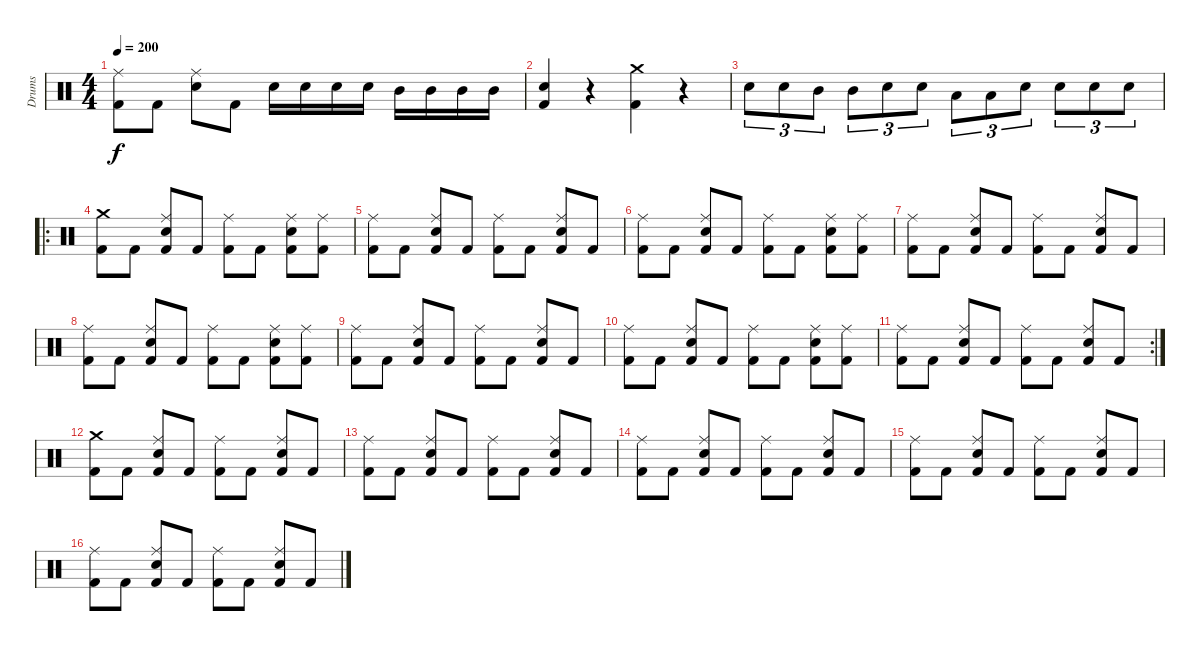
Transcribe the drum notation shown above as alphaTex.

\track ("Drums" "Drums") {instrument percussion}
\staff {score}
\articulation defaults
\ts (4 4)
\tempo 200
\clef neutral
\ks c
("Kick (hit) 2" "Ride (middle)").8{dy f} "Kick (hit) 2".8 ("Ride (middle)" "Electric Snare (hit)").8 "Kick (hit) 2".8 "Electric Snare (hit)".16 "Electric Snare (hit)".16 "Electric Snare (hit)".16 "Electric Snare (hit)".16 "Mid Tom (hit)".16 "Mid Tom (hit)".16 "Mid Tom (hit)".16 "Mid Tom (hit)".16 |
("Kick (hit) 2" "Electric Snare (hit)").4 r.4 ("Kick (hit) 2" "Crash medium (hit)").4 r.4 |
"Electric Snare (hit)".8{tu (3 2)} "Electric Snare (hit)".8{tu (3 2)} "Mid Tom (hit)".8{tu (3 2)} "Mid Tom (hit)".8{tu (3 2)} "Electric Snare (hit)".8{tu (3 2)} "Electric Snare (hit)".8{tu (3 2)} "Low Tom (hit)".8{tu (3 2)} "Low Tom (hit)".8{tu (3 2)} "Electric Snare (hit)".8{tu (3 2)} "Electric Snare (hit)".8{tu (3 2)} "Electric Snare (hit)".8{tu (3 2)} "Electric Snare (hit)".8{tu (3 2)} |
\ro
("Kick (hit) 2" "Crash medium (hit)").8 "Kick (hit) 2".8 ("Kick (hit) 2" "Ride (middle)" "Electric Snare (hit)").8 "Kick (hit) 2".8 ("Kick (hit) 2" "Ride (middle)").8 "Kick (hit) 2".8 ("Kick (hit) 2" "Ride (middle)" "Electric Snare (hit)").8 ("Kick (hit) 2" "Ride (middle)").8 |
("Kick (hit) 2" "Ride (middle)").8 "Kick (hit) 2".8 ("Kick (hit) 2" "Ride (middle)" "Electric Snare (hit)").8 "Kick (hit) 2".8 ("Kick (hit) 2" "Ride (middle)").8 "Kick (hit) 2".8 ("Kick (hit) 2" "Ride (middle)" "Electric Snare (hit)").8 "Kick (hit) 2".8 |
("Kick (hit) 2" "Ride (middle)").8 "Kick (hit) 2".8 ("Kick (hit) 2" "Ride (middle)" "Electric Snare (hit)").8 "Kick (hit) 2".8 ("Kick (hit) 2" "Ride (middle)").8 "Kick (hit) 2".8 ("Kick (hit) 2" "Ride (middle)" "Electric Snare (hit)").8 ("Kick (hit) 2" "Ride (middle)").8 |
("Kick (hit) 2" "Ride (middle)").8 "Kick (hit) 2".8 ("Kick (hit) 2" "Ride (middle)" "Electric Snare (hit)").8 "Kick (hit) 2".8 ("Kick (hit) 2" "Ride (middle)").8 "Kick (hit) 2".8 ("Kick (hit) 2" "Ride (middle)" "Electric Snare (hit)").8 "Kick (hit) 2".8 |
("Kick (hit) 2" "Ride (middle)").8 "Kick (hit) 2".8 ("Kick (hit) 2" "Ride (middle)" "Electric Snare (hit)").8 "Kick (hit) 2".8 ("Kick (hit) 2" "Ride (middle)").8 "Kick (hit) 2".8 ("Kick (hit) 2" "Ride (middle)" "Electric Snare (hit)").8 ("Kick (hit) 2" "Ride (middle)").8 |
("Kick (hit) 2" "Ride (middle)").8 "Kick (hit) 2".8 ("Kick (hit) 2" "Ride (middle)" "Electric Snare (hit)").8 "Kick (hit) 2".8 ("Kick (hit) 2" "Ride (middle)").8 "Kick (hit) 2".8 ("Kick (hit) 2" "Ride (middle)" "Electric Snare (hit)").8 "Kick (hit) 2".8 |
("Kick (hit) 2" "Ride (middle)").8 "Kick (hit) 2".8 ("Kick (hit) 2" "Ride (middle)" "Electric Snare (hit)").8 "Kick (hit) 2".8 ("Kick (hit) 2" "Ride (middle)").8 "Kick (hit) 2".8 ("Kick (hit) 2" "Ride (middle)" "Electric Snare (hit)").8 ("Kick (hit) 2" "Ride (middle)").8 |
\rc 2
("Kick (hit) 2" "Ride (middle)").8 "Kick (hit) 2".8 ("Kick (hit) 2" "Ride (middle)" "Electric Snare (hit)").8 "Kick (hit) 2".8 ("Kick (hit) 2" "Ride (middle)").8 "Kick (hit) 2".8 ("Kick (hit) 2" "Ride (middle)" "Electric Snare (hit)").8 "Kick (hit) 2".8 |
("Kick (hit) 2" "Crash medium (hit)").8 "Kick (hit) 2".8 ("Kick (hit) 2" "Ride (middle)" "Electric Snare (hit)").8 "Kick (hit) 2".8 ("Kick (hit) 2" "Ride (middle)").8 "Kick (hit) 2".8 ("Kick (hit) 2" "Ride (middle)" "Electric Snare (hit)").8 "Kick (hit) 2".8 |
("Kick (hit) 2" "Ride (middle)").8 "Kick (hit) 2".8 ("Kick (hit) 2" "Ride (middle)" "Electric Snare (hit)").8 "Kick (hit) 2".8 ("Kick (hit) 2" "Ride (middle)").8 "Kick (hit) 2".8 ("Kick (hit) 2" "Ride (middle)" "Electric Snare (hit)").8 "Kick (hit) 2".8 |
("Kick (hit) 2" "Ride (middle)").8 "Kick (hit) 2".8 ("Kick (hit) 2" "Ride (middle)" "Electric Snare (hit)").8 "Kick (hit) 2".8 ("Kick (hit) 2" "Ride (middle)").8 "Kick (hit) 2".8 ("Kick (hit) 2" "Ride (middle)" "Electric Snare (hit)").8 "Kick (hit) 2".8 |
("Kick (hit) 2" "Ride (middle)").8 "Kick (hit) 2".8 ("Kick (hit) 2" "Ride (middle)" "Electric Snare (hit)").8 "Kick (hit) 2".8 ("Kick (hit) 2" "Ride (middle)").8 "Kick (hit) 2".8 ("Kick (hit) 2" "Ride (middle)" "Electric Snare (hit)").8 "Kick (hit) 2".8 |
("Kick (hit) 2" "Ride (middle)").8 "Kick (hit) 2".8 ("Kick (hit) 2" "Ride (middle)" "Electric Snare (hit)").8 "Kick (hit) 2".8 ("Kick (hit) 2" "Ride (middle)").8 "Kick (hit) 2".8 ("Kick (hit) 2" "Ride (middle)" "Electric Snare (hit)").8 "Kick (hit) 2".8
